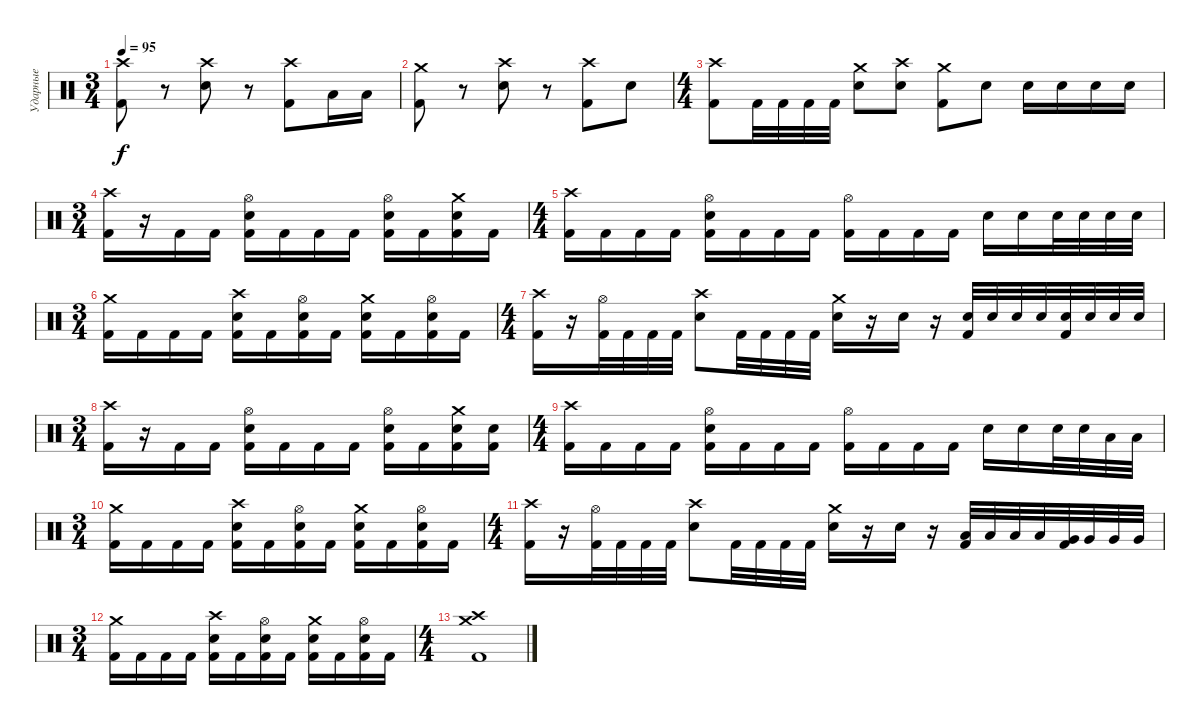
\track ("Ударные" "Ударные") {instrument percussion}
\staff {score}
\articulation defaults
\ts (3 4)
\tempo 95
\clef neutral
\ks c
("Crash high (hit)" "Kick (hit) 2").8{dy f} r.8 ("Crash high (hit)" "Snare (hit) 2").8 r.8 ("Crash high (hit)" "Kick (hit) 2").8 "Low Tom (hit)".16 "Low Tom (hit)".16 |
("Crash medium (hit)" "Kick (hit) 2").8 r.8 ("Crash high (hit)" "Snare (hit) 2").8 r.8 ("Crash high (hit)" "Kick (hit) 2").8 "Snare (hit) 2".8 |
\ts (4 4)
("Crash high (hit)" "Kick (hit) 2").8 "Kick (hit) 2".32 "Kick (hit) 2".32 "Kick (hit) 2".32 "Kick (hit) 2".32 ("Crash medium (hit)" "Snare (hit) 2").8 ("Crash high (hit)" "Snare (hit) 2").8 ("Crash medium (hit)" "Kick (hit) 2").8 "Snare (hit) 2".8 "Snare (hit) 2".16 "Snare (hit) 2".16 "Snare (hit) 2".16 "Snare (hit) 2".16 |
\ts (3 4)
("Crash high (hit)" "Kick (hit) 2").16 r.16 "Kick (hit) 2".16 "Kick (hit) 2".16 ("Hi-Hat (open)" "Snare (hit) 2" "Kick (hit) 2").16 "Kick (hit) 2".16 "Kick (hit) 2".16 "Kick (hit) 2".16 ("Hi-Hat (open)" "Snare (hit) 2" "Kick (hit) 2").16 "Kick (hit) 2".16 ("Crash medium (hit)" "Snare (hit) 2" "Kick (hit) 2").16 "Kick (hit) 2".16 |
\ts (4 4)
("Crash high (hit)" "Kick (hit) 2").16 "Kick (hit) 2".16 "Kick (hit) 2".16 "Kick (hit) 2".16 ("Hi-Hat (open)" "Snare (hit) 2" "Kick (hit) 2").16 "Kick (hit) 2".16 "Kick (hit) 2".16 "Kick (hit) 2".16 ("Hi-Hat (open)" "Kick (hit) 2").16 "Kick (hit) 2".16 "Kick (hit) 2".16 "Kick (hit) 2".16 "Snare (hit) 2".16 "Snare (hit) 2".16 "Snare (hit) 2".32 "Snare (hit) 2".32 "Snare (hit) 2".32 "Snare (hit) 2".32 |
\ts (3 4)
("Crash medium (hit)" "Kick (hit) 2").16 "Kick (hit) 2".16 "Kick (hit) 2".16 "Kick (hit) 2".16 ("Crash high (hit)" "Snare (hit) 2" "Kick (hit) 2").16 "Kick (hit) 2".16 ("Hi-Hat (open)" "Snare (hit) 2" "Kick (hit) 2").16 "Kick (hit) 2".16 ("Crash medium (hit)" "Snare (hit) 2" "Kick (hit) 2").16 "Kick (hit) 2".16 ("Hi-Hat (open)" "Snare (hit) 2" "Kick (hit) 2").16 "Kick (hit) 2".16 |
\ts (4 4)
("Crash high (hit)" "Kick (hit) 2").16 r.16 ("Hi-Hat (open)" "Kick (hit) 2").32 "Kick (hit) 2".32 "Kick (hit) 2".32 "Kick (hit) 2".32 ("Crash high (hit)" "Snare (hit) 2").8 "Kick (hit) 2".32 "Kick (hit) 2".32 "Kick (hit) 2".32 "Kick (hit) 2".32 ("Crash medium (hit)" "Snare (hit) 2").16 r.16 "Snare (hit) 2".16 r.16 ("Kick (hit) 2" "Snare (hit) 2").32 "Snare (hit) 2".32 "Snare (hit) 2".32 "Snare (hit) 2".32 ("Kick (hit) 2" "Snare (hit) 2").32 "Snare (hit) 2".32 "Snare (hit) 2".32 "Snare (hit) 2".32 |
\ts (3 4)
("Crash high (hit)" "Kick (hit) 2").16 r.16 "Kick (hit) 2".16 "Kick (hit) 2".16 ("Hi-Hat (open)" "Snare (hit) 2" "Kick (hit) 2").16 "Kick (hit) 2".16 "Kick (hit) 2".16 "Kick (hit) 2".16 ("Hi-Hat (open)" "Snare (hit) 2" "Kick (hit) 2").16 "Kick (hit) 2".16 ("Crash medium (hit)" "Snare (hit) 2" "Kick (hit) 2").16 ("Snare (hit) 2" "Kick (hit) 2").16 |
\ts (4 4)
("Crash high (hit)" "Kick (hit) 2").16 "Kick (hit) 2".16 "Kick (hit) 2".16 "Kick (hit) 2".16 ("Hi-Hat (open)" "Snare (hit) 2" "Kick (hit) 2").16 "Kick (hit) 2".16 "Kick (hit) 2".16 "Kick (hit) 2".16 ("Hi-Hat (open)" "Kick (hit) 2").16 "Kick (hit) 2".16 "Kick (hit) 2".16 "Kick (hit) 2".16 "Snare (hit) 2".16 "Snare (hit) 2".16 "Snare (hit) 2".32 "Snare (hit) 2".32 "Low Tom (hit)".32 "Low Tom (hit)".32 |
\ts (3 4)
("Crash medium (hit)" "Kick (hit) 2").16 "Kick (hit) 2".16 "Kick (hit) 2".16 "Kick (hit) 2".16 ("Crash high (hit)" "Snare (hit) 2" "Kick (hit) 2").16 "Kick (hit) 2".16 ("Hi-Hat (open)" "Snare (hit) 2" "Kick (hit) 2").16 "Kick (hit) 2".16 ("Crash medium (hit)" "Snare (hit) 2" "Kick (hit) 2").16 "Kick (hit) 2".16 ("Hi-Hat (open)" "Snare (hit) 2" "Kick (hit) 2").16 "Kick (hit) 2".16 |
\ts (4 4)
("Crash high (hit)" "Kick (hit) 2").16 r.16 ("Hi-Hat (open)" "Kick (hit) 2").32 "Kick (hit) 2".32 "Kick (hit) 2".32 "Kick (hit) 2".32 ("Crash high (hit)" "Snare (hit) 2").8 "Kick (hit) 2".32 "Kick (hit) 2".32 "Kick (hit) 2".32 "Kick (hit) 2".32 ("Crash medium (hit)" "Snare (hit) 2").16 r.16 "Snare (hit) 2".16 r.16 ("Kick (hit) 2" "Low Tom (hit)").32 "Low Tom (hit)".32 "Low Tom (hit)".32 "Low Tom (hit)".32 ("Kick (hit) 2" "Very Low Tom (hit)").32 "Very Low Tom (hit)".32 "Very Low Tom (hit)".32 "Very Low Tom (hit)".32 |
\ts (3 4)
("Crash medium (hit)" "Kick (hit) 2").16 "Kick (hit) 2".16 "Kick (hit) 2".16 "Kick (hit) 2".16 ("Crash high (hit)" "Snare (hit) 2" "Kick (hit) 2").16 "Kick (hit) 2".16 ("Hi-Hat (open)" "Snare (hit) 2" "Kick (hit) 2").16 "Kick (hit) 2".16 ("Crash medium (hit)" "Snare (hit) 2" "Kick (hit) 2").16 "Kick (hit) 2".16 ("Hi-Hat (open)" "Snare (hit) 2" "Kick (hit) 2").16 "Kick (hit) 2".16 |
\ts (4 4)
("Crash high (hit)" "Crash medium (hit)" "Kick (hit) 2").1
